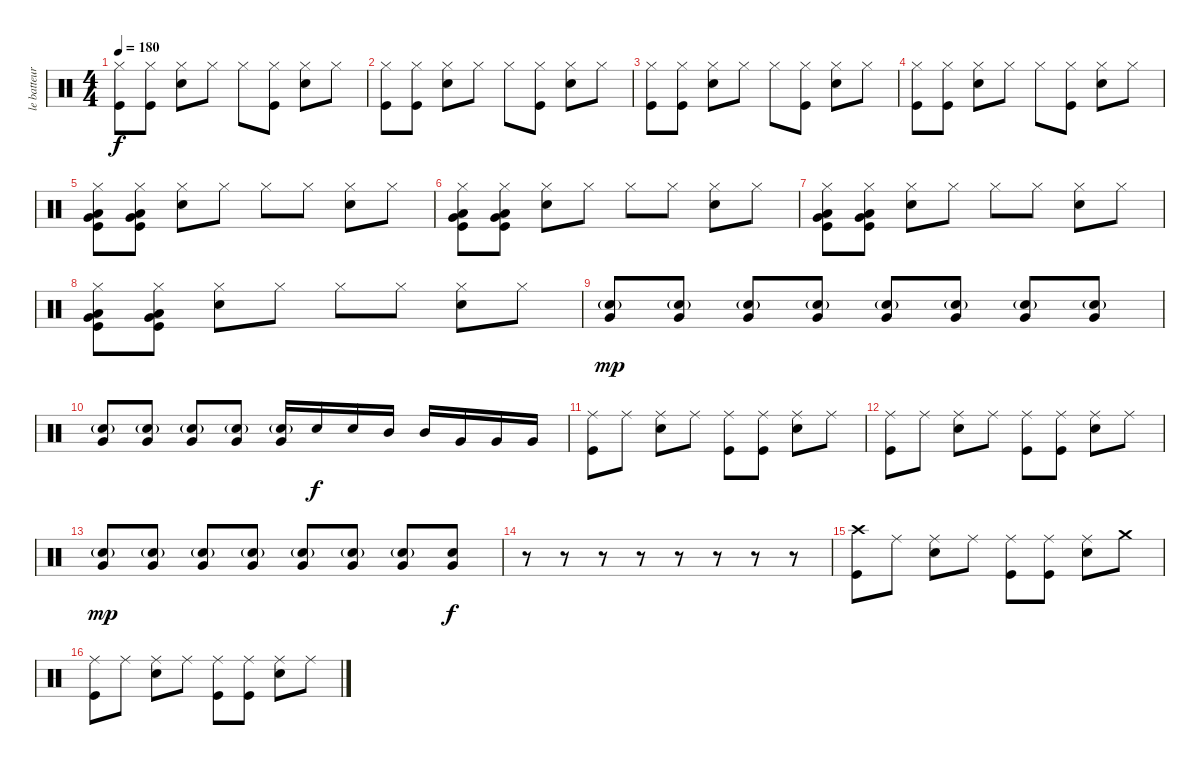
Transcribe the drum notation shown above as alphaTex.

\track ("le batteur" "le batteur") {instrument percussion}
\staff {score}
\articulation defaults
\ts (4 4)
\tempo 180
\clef neutral
\ks c
("Hi-Hat (closed)" "Kick (hit)").8{dy f} ("Hi-Hat (closed)" "Kick (hit)").8 ("Hi-Hat (closed)" "Snare (hit) 2").8 "Hi-Hat (closed)".8 "Hi-Hat (closed)".8 ("Hi-Hat (closed)" "Kick (hit)").8 ("Hi-Hat (closed)" "Snare (hit) 2").8 "Hi-Hat (closed)".8 |
("Hi-Hat (closed)" "Kick (hit)").8 ("Hi-Hat (closed)" "Kick (hit)").8 ("Hi-Hat (closed)" "Snare (hit) 2").8 "Hi-Hat (closed)".8 "Hi-Hat (closed)".8 ("Hi-Hat (closed)" "Kick (hit)").8 ("Hi-Hat (closed)" "Snare (hit) 2").8 "Hi-Hat (closed)".8 |
("Hi-Hat (closed)" "Kick (hit)").8 ("Hi-Hat (closed)" "Kick (hit)").8 ("Hi-Hat (closed)" "Snare (hit) 2").8 "Hi-Hat (closed)".8 "Hi-Hat (closed)".8 ("Hi-Hat (closed)" "Kick (hit)").8 ("Hi-Hat (closed)" "Snare (hit) 2").8 "Hi-Hat (closed)".8 |
("Hi-Hat (closed)" "Kick (hit)").8 ("Hi-Hat (closed)" "Kick (hit)").8 ("Hi-Hat (closed)" "Snare (hit) 2").8 "Hi-Hat (closed)".8 "Hi-Hat (closed)".8 ("Hi-Hat (closed)" "Kick (hit)").8 ("Hi-Hat (closed)" "Snare (hit) 2").8 "Hi-Hat (closed)".8 |
("Hi-Hat (closed)" "Very Low Tom (hit)" "Low Floor Tom (hit)" "Kick (hit)").8 ("Hi-Hat (closed)" "Very Low Tom (hit)" "Low Floor Tom (hit)" "Kick (hit)").8 ("Hi-Hat (closed)" "Snare (hit) 2").8 "Hi-Hat (closed)".8 "Hi-Hat (closed)".8 "Hi-Hat (closed)".8 ("Hi-Hat (closed)" "Snare (hit) 2").8 "Hi-Hat (closed)".8 |
("Hi-Hat (closed)" "Very Low Tom (hit)" "Low Floor Tom (hit)" "Kick (hit)").8 ("Hi-Hat (closed)" "Very Low Tom (hit)" "Low Floor Tom (hit)" "Kick (hit)").8 ("Hi-Hat (closed)" "Snare (hit) 2").8 "Hi-Hat (closed)".8 "Hi-Hat (closed)".8 "Hi-Hat (closed)".8 ("Hi-Hat (closed)" "Snare (hit) 2").8 "Hi-Hat (closed)".8 |
("Hi-Hat (closed)" "Very Low Tom (hit)" "Low Floor Tom (hit)" "Kick (hit)").8 ("Hi-Hat (closed)" "Very Low Tom (hit)" "Low Floor Tom (hit)" "Kick (hit)").8 ("Hi-Hat (closed)" "Snare (hit) 2").8 "Hi-Hat (closed)".8 "Hi-Hat (closed)".8 "Hi-Hat (closed)".8 ("Hi-Hat (closed)" "Snare (hit) 2").8 "Hi-Hat (closed)".8 |
("Hi-Hat (closed)" "Very Low Tom (hit)" "Low Floor Tom (hit)" "Kick (hit)").8 ("Hi-Hat (closed)" "Very Low Tom (hit)" "Low Floor Tom (hit)" "Kick (hit)").8 ("Hi-Hat (closed)" "Snare (hit) 2").8 "Hi-Hat (closed)".8 "Hi-Hat (closed)".8 "Hi-Hat (closed)".8 ("Hi-Hat (closed)" "Snare (hit) 2").8 "Hi-Hat (closed)".8 |
("Snare (hit) 2"{g} "Very Low Tom (hit)").8{dy mp} ("Snare (hit) 2"{g} "Very Low Tom (hit)").8 ("Snare (hit) 2"{g} "Very Low Tom (hit)").8 ("Snare (hit) 2"{g} "Very Low Tom (hit)").8 ("Snare (hit) 2"{g} "Very Low Tom (hit)").8 ("Snare (hit) 2"{g} "Very Low Tom (hit)").8 ("Snare (hit) 2"{g} "Very Low Tom (hit)").8 ("Snare (hit) 2"{g} "Very Low Tom (hit)").8 |
("Snare (hit) 2"{g} "Very Low Tom (hit)").8 ("Snare (hit) 2"{g} "Very Low Tom (hit)").8 ("Snare (hit) 2"{g} "Very Low Tom (hit)").8 ("Snare (hit) 2"{g} "Very Low Tom (hit)").8 ("Snare (hit) 2"{g} "Very Low Tom (hit)").16 "Snare (hit) 2".16{dy f} "Snare (hit) 2".16 "Mid Tom (hit)".16 "Mid Tom (hit)".16 "Very Low Tom (hit)".16 "Very Low Tom (hit)".16 "Very Low Tom (hit)".16 |
("Ride (middle)" "Kick (hit)").8 "Ride (middle)".8 ("Ride (middle)" "Snare (hit) 2").8 "Ride (middle)".8 ("Ride (middle)" "Kick (hit)").8 ("Ride (middle)" "Kick (hit)").8 ("Ride (middle)" "Snare (hit) 2").8 "Ride (middle)".8 |
("Ride (middle)" "Kick (hit)").8 "Ride (middle)".8 ("Ride (middle)" "Snare (hit) 2").8 "Ride (middle)".8 ("Ride (middle)" "Kick (hit)").8 ("Ride (middle)" "Kick (hit)").8 ("Ride (middle)" "Snare (hit) 2").8 "Ride (middle)".8 |
("Snare (hit) 2"{g} "Very Low Tom (hit)").8{dy mp} ("Snare (hit) 2"{g} "Very Low Tom (hit)").8 ("Snare (hit) 2"{g} "Very Low Tom (hit)").8 ("Snare (hit) 2"{g} "Very Low Tom (hit)").8 ("Snare (hit) 2"{g} "Very Low Tom (hit)").8 ("Snare (hit) 2"{g} "Very Low Tom (hit)").8 ("Snare (hit) 2"{g} "Very Low Tom (hit)").8 ("Snare (hit) 2" "Very Low Tom (hit)").8{dy f} |
r.8 r.8 r.8 r.8 r.8 r.8 r.8 r.8 |
("Crash high (hit)" "Kick (hit)").8 "Ride (middle)".8 ("Ride (middle)" "Snare (hit) 2").8 "Ride (middle)".8 ("Ride (middle)" "Kick (hit)").8 ("Ride (middle)" "Kick (hit)").8 ("Ride (middle)" "Snare (hit) 2").8 "Crash medium (hit)".8 |
("Ride (middle)" "Kick (hit)").8 "Ride (middle)".8 ("Ride (middle)" "Snare (hit) 2").8 "Ride (middle)".8 ("Ride (middle)" "Kick (hit)").8 ("Ride (middle)" "Kick (hit)").8 ("Ride (middle)" "Snare (hit) 2").8 "Ride (middle)".8
